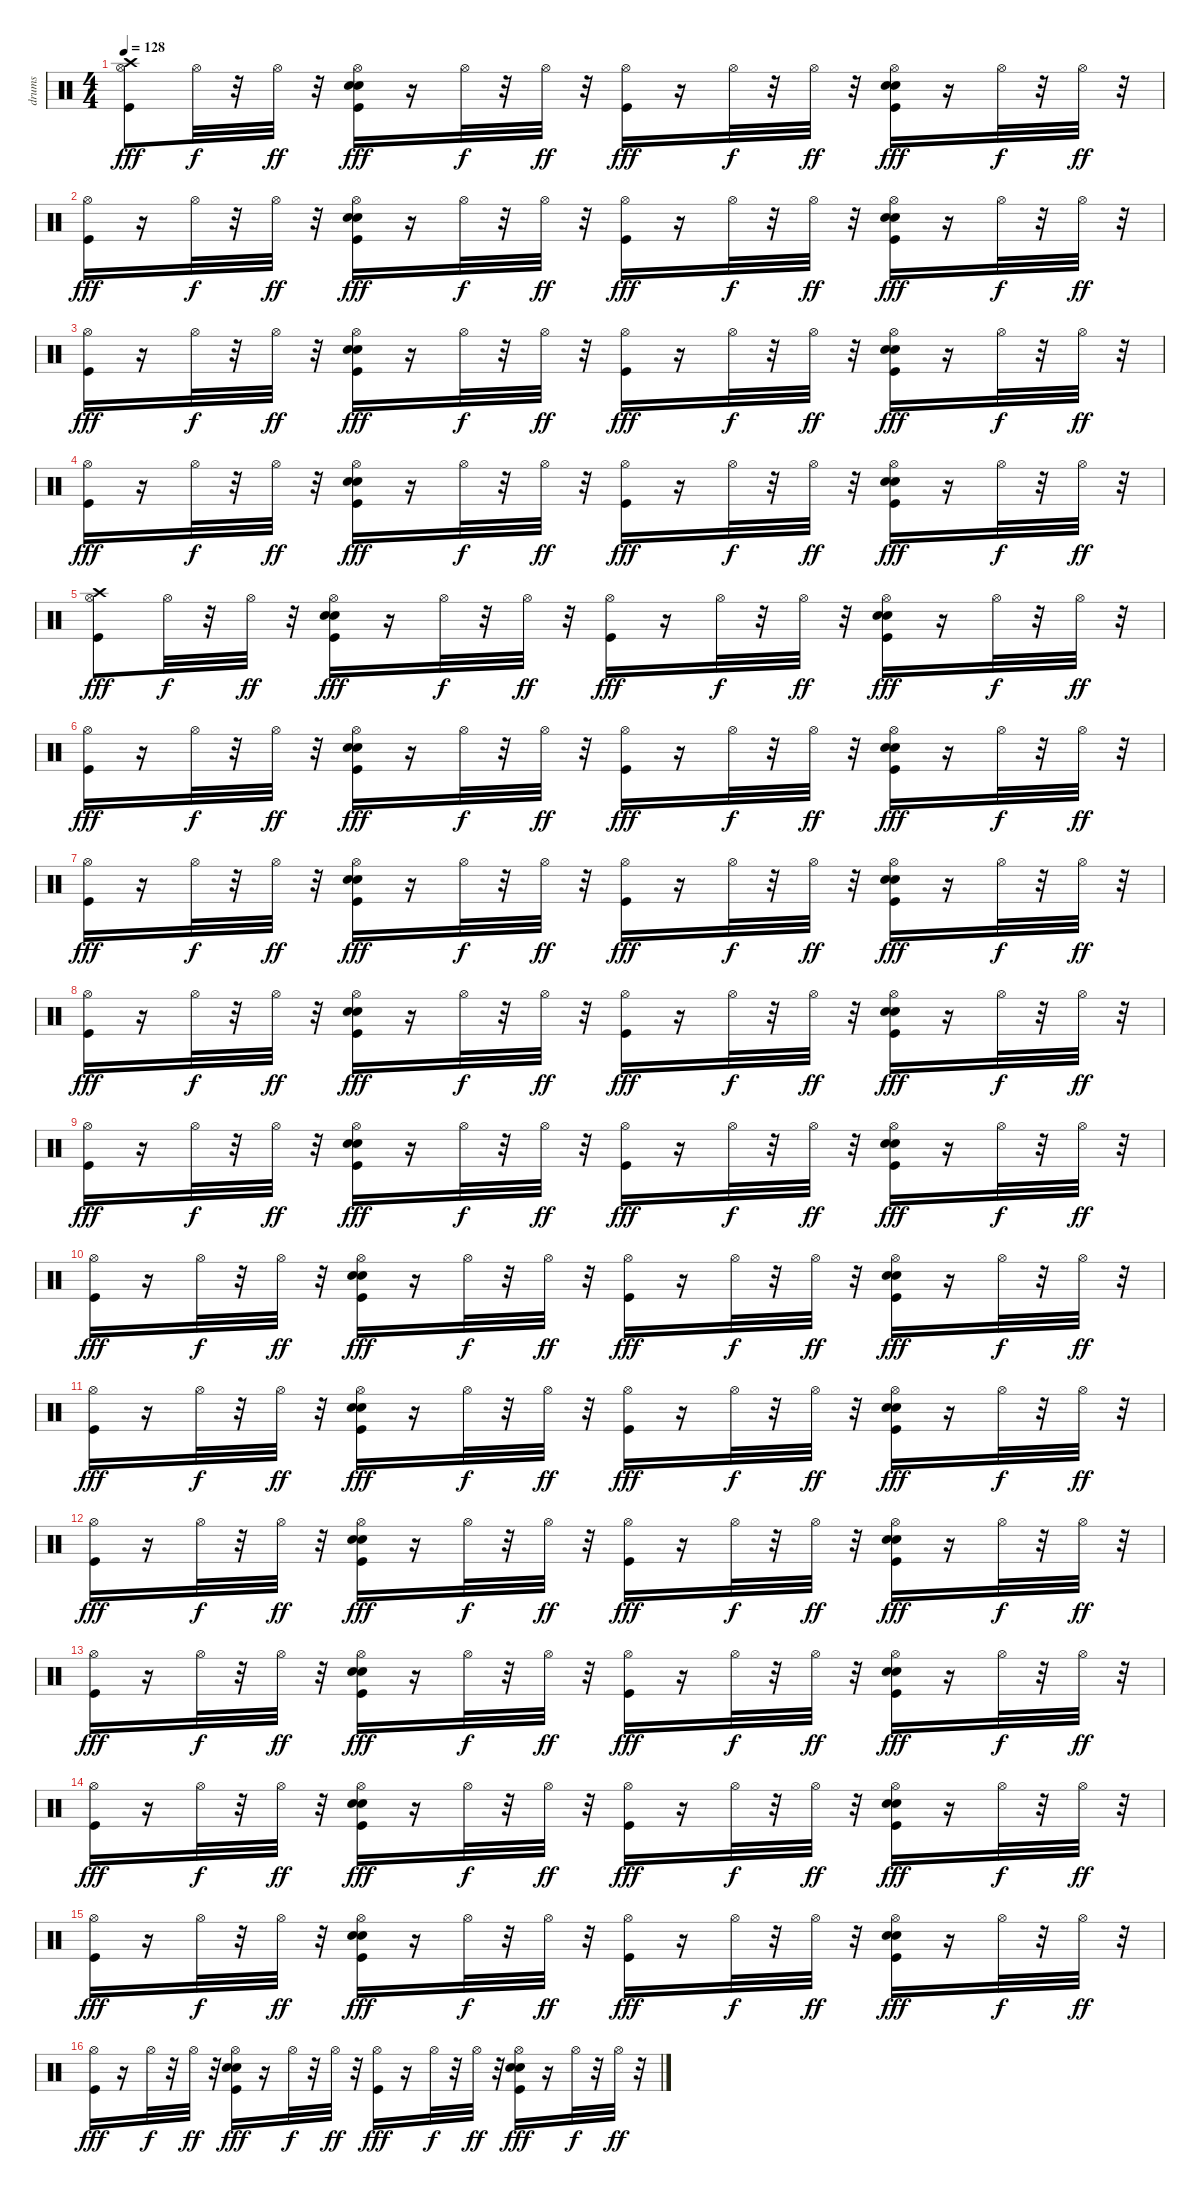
\track ("drums" "drums") {instrument percussion}
\staff {score}
\articulation defaults
\ts (4 4)
\tempo 128
\clef neutral
\ks c
("Hi-Hat (open)" "Kick (hit)" "Crash high (hit)").8{dy fff} "Hi-Hat (open)".32{dy f} r.32 "Hi-Hat (open)".32{dy ff} r.32 ("Snare (hit) 2" "Electric Snare (hit)" "Kick (hit)" "Hi-Hat (open)").16{dy fff} r.16 "Hi-Hat (open)".32{dy f} r.32 "Hi-Hat (open)".32{dy ff} r.32 ("Kick (hit)" "Hi-Hat (open)").16{dy fff} r.16 "Hi-Hat (open)".32{dy f} r.32 "Hi-Hat (open)".32{dy ff} r.32 ("Kick (hit)" "Snare (hit) 2" "Electric Snare (hit)" "Hi-Hat (open)").16{dy fff} r.16 "Hi-Hat (open)".32{dy f} r.32 "Hi-Hat (open)".32{dy ff} r.32 |
("Hi-Hat (open)" "Kick (hit)").16{dy fff} r.16 "Hi-Hat (open)".32{dy f} r.32 "Hi-Hat (open)".32{dy ff} r.32 ("Snare (hit) 2" "Electric Snare (hit)" "Kick (hit)" "Hi-Hat (open)").16{dy fff} r.16 "Hi-Hat (open)".32{dy f} r.32 "Hi-Hat (open)".32{dy ff} r.32 ("Kick (hit)" "Hi-Hat (open)").16{dy fff} r.16 "Hi-Hat (open)".32{dy f} r.32 "Hi-Hat (open)".32{dy ff} r.32 ("Kick (hit)" "Snare (hit) 2" "Electric Snare (hit)" "Hi-Hat (open)").16{dy fff} r.16 "Hi-Hat (open)".32{dy f} r.32 "Hi-Hat (open)".32{dy ff} r.32 |
("Hi-Hat (open)" "Kick (hit)").16{dy fff} r.16 "Hi-Hat (open)".32{dy f} r.32 "Hi-Hat (open)".32{dy ff} r.32 ("Snare (hit) 2" "Electric Snare (hit)" "Kick (hit)" "Hi-Hat (open)").16{dy fff} r.16 "Hi-Hat (open)".32{dy f} r.32 "Hi-Hat (open)".32{dy ff} r.32 ("Kick (hit)" "Hi-Hat (open)").16{dy fff} r.16 "Hi-Hat (open)".32{dy f} r.32 "Hi-Hat (open)".32{dy ff} r.32 ("Kick (hit)" "Snare (hit) 2" "Electric Snare (hit)" "Hi-Hat (open)").16{dy fff} r.16 "Hi-Hat (open)".32{dy f} r.32 "Hi-Hat (open)".32{dy ff} r.32 |
("Hi-Hat (open)" "Kick (hit)").16{dy fff} r.16 "Hi-Hat (open)".32{dy f} r.32 "Hi-Hat (open)".32{dy ff} r.32 ("Snare (hit) 2" "Electric Snare (hit)" "Kick (hit)" "Hi-Hat (open)").16{dy fff} r.16 "Hi-Hat (open)".32{dy f} r.32 "Hi-Hat (open)".32{dy ff} r.32 ("Kick (hit)" "Hi-Hat (open)").16{dy fff} r.16 "Hi-Hat (open)".32{dy f} r.32 "Hi-Hat (open)".32{dy ff} r.32 ("Kick (hit)" "Snare (hit) 2" "Electric Snare (hit)" "Hi-Hat (open)").16{dy fff} r.16 "Hi-Hat (open)".32{dy f} r.32 "Hi-Hat (open)".32{dy ff} r.32 |
("Hi-Hat (open)" "Kick (hit)" "Crash high (hit)").8{dy fff} "Hi-Hat (open)".32{dy f} r.32 "Hi-Hat (open)".32{dy ff} r.32 ("Snare (hit) 2" "Electric Snare (hit)" "Kick (hit)" "Hi-Hat (open)").16{dy fff} r.16 "Hi-Hat (open)".32{dy f} r.32 "Hi-Hat (open)".32{dy ff} r.32 ("Kick (hit)" "Hi-Hat (open)").16{dy fff} r.16 "Hi-Hat (open)".32{dy f} r.32 "Hi-Hat (open)".32{dy ff} r.32 ("Kick (hit)" "Snare (hit) 2" "Electric Snare (hit)" "Hi-Hat (open)").16{dy fff} r.16 "Hi-Hat (open)".32{dy f} r.32 "Hi-Hat (open)".32{dy ff} r.32 |
("Hi-Hat (open)" "Kick (hit)").16{dy fff} r.16 "Hi-Hat (open)".32{dy f} r.32 "Hi-Hat (open)".32{dy ff} r.32 ("Snare (hit) 2" "Electric Snare (hit)" "Kick (hit)" "Hi-Hat (open)").16{dy fff} r.16 "Hi-Hat (open)".32{dy f} r.32 "Hi-Hat (open)".32{dy ff} r.32 ("Kick (hit)" "Hi-Hat (open)").16{dy fff} r.16 "Hi-Hat (open)".32{dy f} r.32 "Hi-Hat (open)".32{dy ff} r.32 ("Kick (hit)" "Snare (hit) 2" "Electric Snare (hit)" "Hi-Hat (open)").16{dy fff} r.16 "Hi-Hat (open)".32{dy f} r.32 "Hi-Hat (open)".32{dy ff} r.32 |
("Hi-Hat (open)" "Kick (hit)").16{dy fff} r.16 "Hi-Hat (open)".32{dy f} r.32 "Hi-Hat (open)".32{dy ff} r.32 ("Snare (hit) 2" "Electric Snare (hit)" "Kick (hit)" "Hi-Hat (open)").16{dy fff} r.16 "Hi-Hat (open)".32{dy f} r.32 "Hi-Hat (open)".32{dy ff} r.32 ("Kick (hit)" "Hi-Hat (open)").16{dy fff} r.16 "Hi-Hat (open)".32{dy f} r.32 "Hi-Hat (open)".32{dy ff} r.32 ("Kick (hit)" "Snare (hit) 2" "Electric Snare (hit)" "Hi-Hat (open)").16{dy fff} r.16 "Hi-Hat (open)".32{dy f} r.32 "Hi-Hat (open)".32{dy ff} r.32 |
("Hi-Hat (open)" "Kick (hit)").16{dy fff} r.16 "Hi-Hat (open)".32{dy f} r.32 "Hi-Hat (open)".32{dy ff} r.32 ("Snare (hit) 2" "Electric Snare (hit)" "Kick (hit)" "Hi-Hat (open)").16{dy fff} r.16 "Hi-Hat (open)".32{dy f} r.32 "Hi-Hat (open)".32{dy ff} r.32 ("Kick (hit)" "Hi-Hat (open)").16{dy fff} r.16 "Hi-Hat (open)".32{dy f} r.32 "Hi-Hat (open)".32{dy ff} r.32 ("Kick (hit)" "Snare (hit) 2" "Electric Snare (hit)" "Hi-Hat (open)").16{dy fff} r.16 "Hi-Hat (open)".32{dy f} r.32 "Hi-Hat (open)".32{dy ff} r.32 |
("Hi-Hat (open)" "Kick (hit)").16{dy fff} r.16 "Hi-Hat (open)".32{dy f} r.32 "Hi-Hat (open)".32{dy ff} r.32 ("Snare (hit) 2" "Electric Snare (hit)" "Kick (hit)" "Hi-Hat (open)").16{dy fff} r.16 "Hi-Hat (open)".32{dy f} r.32 "Hi-Hat (open)".32{dy ff} r.32 ("Kick (hit)" "Hi-Hat (open)").16{dy fff} r.16 "Hi-Hat (open)".32{dy f} r.32 "Hi-Hat (open)".32{dy ff} r.32 ("Kick (hit)" "Snare (hit) 2" "Electric Snare (hit)" "Hi-Hat (open)").16{dy fff} r.16 "Hi-Hat (open)".32{dy f} r.32 "Hi-Hat (open)".32{dy ff} r.32 |
("Hi-Hat (open)" "Kick (hit)").16{dy fff} r.16 "Hi-Hat (open)".32{dy f} r.32 "Hi-Hat (open)".32{dy ff} r.32 ("Snare (hit) 2" "Electric Snare (hit)" "Kick (hit)" "Hi-Hat (open)").16{dy fff} r.16 "Hi-Hat (open)".32{dy f} r.32 "Hi-Hat (open)".32{dy ff} r.32 ("Kick (hit)" "Hi-Hat (open)").16{dy fff} r.16 "Hi-Hat (open)".32{dy f} r.32 "Hi-Hat (open)".32{dy ff} r.32 ("Kick (hit)" "Snare (hit) 2" "Electric Snare (hit)" "Hi-Hat (open)").16{dy fff} r.16 "Hi-Hat (open)".32{dy f} r.32 "Hi-Hat (open)".32{dy ff} r.32 |
("Hi-Hat (open)" "Kick (hit)").16{dy fff} r.16 "Hi-Hat (open)".32{dy f} r.32 "Hi-Hat (open)".32{dy ff} r.32 ("Snare (hit) 2" "Electric Snare (hit)" "Kick (hit)" "Hi-Hat (open)").16{dy fff} r.16 "Hi-Hat (open)".32{dy f} r.32 "Hi-Hat (open)".32{dy ff} r.32 ("Kick (hit)" "Hi-Hat (open)").16{dy fff} r.16 "Hi-Hat (open)".32{dy f} r.32 "Hi-Hat (open)".32{dy ff} r.32 ("Kick (hit)" "Snare (hit) 2" "Electric Snare (hit)" "Hi-Hat (open)").16{dy fff} r.16 "Hi-Hat (open)".32{dy f} r.32 "Hi-Hat (open)".32{dy ff} r.32 |
("Hi-Hat (open)" "Kick (hit)").16{dy fff} r.16 "Hi-Hat (open)".32{dy f} r.32 "Hi-Hat (open)".32{dy ff} r.32 ("Snare (hit) 2" "Electric Snare (hit)" "Kick (hit)" "Hi-Hat (open)").16{dy fff} r.16 "Hi-Hat (open)".32{dy f} r.32 "Hi-Hat (open)".32{dy ff} r.32 ("Kick (hit)" "Hi-Hat (open)").16{dy fff} r.16 "Hi-Hat (open)".32{dy f} r.32 "Hi-Hat (open)".32{dy ff} r.32 ("Kick (hit)" "Snare (hit) 2" "Electric Snare (hit)" "Hi-Hat (open)").16{dy fff} r.16 "Hi-Hat (open)".32{dy f} r.32 "Hi-Hat (open)".32{dy ff} r.32 |
("Hi-Hat (open)" "Kick (hit)").16{dy fff} r.16 "Hi-Hat (open)".32{dy f} r.32 "Hi-Hat (open)".32{dy ff} r.32 ("Snare (hit) 2" "Electric Snare (hit)" "Kick (hit)" "Hi-Hat (open)").16{dy fff} r.16 "Hi-Hat (open)".32{dy f} r.32 "Hi-Hat (open)".32{dy ff} r.32 ("Kick (hit)" "Hi-Hat (open)").16{dy fff} r.16 "Hi-Hat (open)".32{dy f} r.32 "Hi-Hat (open)".32{dy ff} r.32 ("Kick (hit)" "Snare (hit) 2" "Electric Snare (hit)" "Hi-Hat (open)").16{dy fff} r.16 "Hi-Hat (open)".32{dy f} r.32 "Hi-Hat (open)".32{dy ff} r.32 |
("Hi-Hat (open)" "Kick (hit)").16{dy fff} r.16 "Hi-Hat (open)".32{dy f} r.32 "Hi-Hat (open)".32{dy ff} r.32 ("Snare (hit) 2" "Electric Snare (hit)" "Kick (hit)" "Hi-Hat (open)").16{dy fff} r.16 "Hi-Hat (open)".32{dy f} r.32 "Hi-Hat (open)".32{dy ff} r.32 ("Kick (hit)" "Hi-Hat (open)").16{dy fff} r.16 "Hi-Hat (open)".32{dy f} r.32 "Hi-Hat (open)".32{dy ff} r.32 ("Kick (hit)" "Snare (hit) 2" "Electric Snare (hit)" "Hi-Hat (open)").16{dy fff} r.16 "Hi-Hat (open)".32{dy f} r.32 "Hi-Hat (open)".32{dy ff} r.32 |
("Kick (hit)" "Hi-Hat (open)").16{dy fff} r.16 "Hi-Hat (open)".32{dy f} r.32 "Hi-Hat (open)".32{dy ff} r.32 ("Snare (hit) 2" "Electric Snare (hit)" "Kick (hit)" "Hi-Hat (open)").16{dy fff} r.16 "Hi-Hat (open)".32{dy f} r.32 "Hi-Hat (open)".32{dy ff} r.32 ("Kick (hit)" "Hi-Hat (open)").16{dy fff} r.16 "Hi-Hat (open)".32{dy f} r.32 "Hi-Hat (open)".32{dy ff} r.32 ("Kick (hit)" "Snare (hit) 2" "Electric Snare (hit)" "Hi-Hat (open)").16{dy fff} r.16 "Hi-Hat (open)".32{dy f} r.32 "Hi-Hat (open)".32{dy ff} r.32 |
("Hi-Hat (open)" "Kick (hit)").16{dy fff} r.16 "Hi-Hat (open)".32{dy f} r.32 "Hi-Hat (open)".32{dy ff} r.32 ("Snare (hit) 2" "Electric Snare (hit)" "Kick (hit)" "Hi-Hat (open)").16{dy fff} r.16 "Hi-Hat (open)".32{dy f} r.32 "Hi-Hat (open)".32{dy ff} r.32 ("Kick (hit)" "Hi-Hat (open)").16{dy fff} r.16 "Hi-Hat (open)".32{dy f} r.32 "Hi-Hat (open)".32{dy ff} r.32 ("Kick (hit)" "Snare (hit) 2" "Electric Snare (hit)" "Hi-Hat (open)").16{dy fff} r.16 "Hi-Hat (open)".32{dy f} r.32 "Hi-Hat (open)".32{dy ff} r.32
